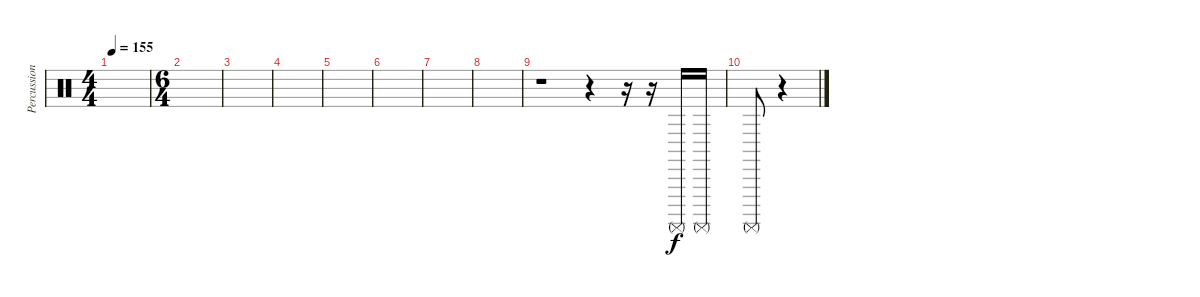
\track ("Percussion" "Percussion") {instrument percussion}
\staff {score}
\articulation defaults
\ts (4 4)
\tempo 155
\clef neutral
\ks c
|
\ts (6 4)
|
|
|
|
|
|
|
r.1 r.4 r.16 r.16 "Surdo (mute)".16 "Surdo (mute)".16 |
"Surdo (mute)".8 r.4
